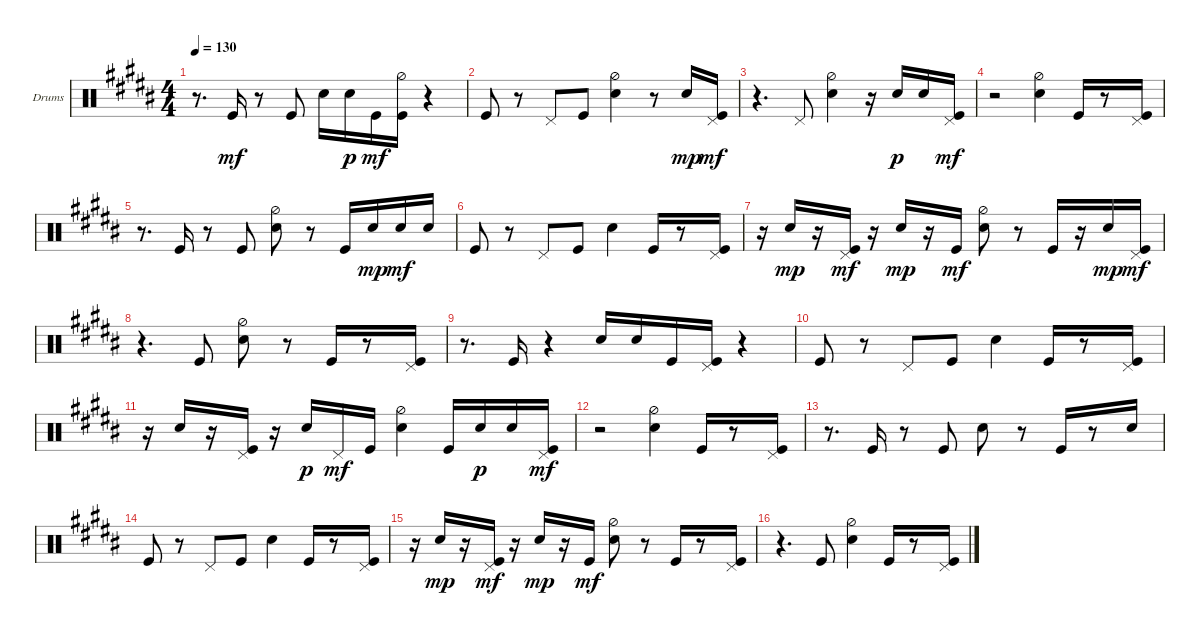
\defaultSystemsLayout 4
\bracketExtendMode groupsimilarinstruments
\firstSystemTrackNameOrientation horizontal
\otherSystemsTrackNameOrientation horizontal
\track ("Drumkit" "Drums") {multiBarRest instrument percussion}
\staff {score}
\articulation defaults
\ts (4 4)
\tempo 130
\clef neutral
\ks b
r.8{d dy mf} "Kick (hit)".16 r.8 "Kick (hit)".8 "Snare (hit) 2".16 "Snare (hit) 2".16{dy p} "Kick (hit)".16{dy mf} ("Kick (hit)" "Hi-Hat (half)").16 r.4 |
"Kick (hit)".8 r.8 "Pedal Hi-Hat (hit)".8 "Kick (hit)".8 ("Snare (hit) 2" "Hi-Hat (half)").4 r.8 "Snare (hit) 2".16{dy mp} ("Kick (hit)" "Pedal Hi-Hat (hit)").16{dy mf} |
r.4{d} "Pedal Hi-Hat (hit)".8 ("Snare (hit) 2" "Hi-Hat (half)").4 r.16 "Snare (hit) 2".16{dy p} "Snare (hit) 2".16 ("Kick (hit)" "Pedal Hi-Hat (hit)").16{dy mf} |
r.2 ("Snare (hit) 2" "Hi-Hat (half)").4 "Kick (hit)".16 r.8 ("Kick (hit)" "Pedal Hi-Hat (hit)").16 |
r.8{d} "Kick (hit)".16 r.8 "Kick (hit)".8 ("Snare (hit) 2" "Hi-Hat (half)").8 r.8 "Kick (hit)".16 "Snare (hit) 2".16{dy mp} "Snare (hit) 2".16{dy mf} "Snare (hit) 2".16 |
"Kick (hit)".8 r.8 "Pedal Hi-Hat (hit)".8 "Kick (hit)".8 "Snare (hit) 2".4 "Kick (hit)".16 r.8 ("Kick (hit)" "Pedal Hi-Hat (hit)").16 |
r.16 "Snare (hit) 2".16{dy mp} r.16 ("Kick (hit)" "Pedal Hi-Hat (hit)").16{dy mf} r.16 "Snare (hit) 2".16{dy mp} r.16 "Kick (hit)".16{dy mf} ("Snare (hit) 2" "Hi-Hat (half)").8 r.8 "Kick (hit)".16 r.16 "Snare (hit) 2".16{dy mp} ("Kick (hit)" "Pedal Hi-Hat (hit)").16{dy mf} |
r.4{d} "Kick (hit)".8 ("Snare (hit) 2" "Hi-Hat (half)").8 r.8 "Kick (hit)".16 r.8 ("Kick (hit)" "Pedal Hi-Hat (hit)").16 |
r.8{d} "Kick (hit)".16 r.4 "Snare (hit) 2".16 "Snare (hit) 2".16 "Kick (hit)".16 ("Kick (hit)" "Pedal Hi-Hat (hit)").16 r.4 |
"Kick (hit)".8 r.8 "Pedal Hi-Hat (hit)".8 "Kick (hit)".8 "Snare (hit) 2".4 "Kick (hit)".16 r.8 ("Kick (hit)" "Pedal Hi-Hat (hit)").16 |
r.16 "Snare (hit) 2".16 r.16 ("Kick (hit)" "Pedal Hi-Hat (hit)").16 r.16 "Snare (hit) 2".16{dy p} "Pedal Hi-Hat (hit)".16{dy mf} "Kick (hit)".16 ("Snare (hit) 2" "Hi-Hat (half)").4 "Kick (hit)".16 "Snare (hit) 2".16{dy p} "Snare (hit) 2".16 ("Kick (hit)" "Pedal Hi-Hat (hit)").16{dy mf} |
r.2 ("Snare (hit) 2" "Hi-Hat (half)").4 "Kick (hit)".16 r.8 ("Kick (hit)" "Pedal Hi-Hat (hit)").16 |
r.8{d} "Kick (hit)".16 r.8 "Kick (hit)".8 "Snare (hit) 2".8 r.8 "Kick (hit)".16 r.8 "Snare (hit) 2".16 |
"Kick (hit)".8 r.8 "Pedal Hi-Hat (hit)".8 "Kick (hit)".8 "Snare (hit) 2".4 "Kick (hit)".16 r.8 ("Kick (hit)" "Pedal Hi-Hat (hit)").16 |
r.16 "Snare (hit) 2".16{dy mp} r.16 ("Kick (hit)" "Pedal Hi-Hat (hit)").16{dy mf} r.16 "Snare (hit) 2".16{dy mp} r.16 "Kick (hit)".16{dy mf} ("Snare (hit) 2" "Hi-Hat (half)").8 r.8 "Kick (hit)".16 r.8 ("Kick (hit)" "Pedal Hi-Hat (hit)").16 |
r.4{d} "Kick (hit)".8 ("Snare (hit) 2" "Hi-Hat (half)").4 "Kick (hit)".16 r.8 ("Kick (hit)" "Pedal Hi-Hat (hit)").16
